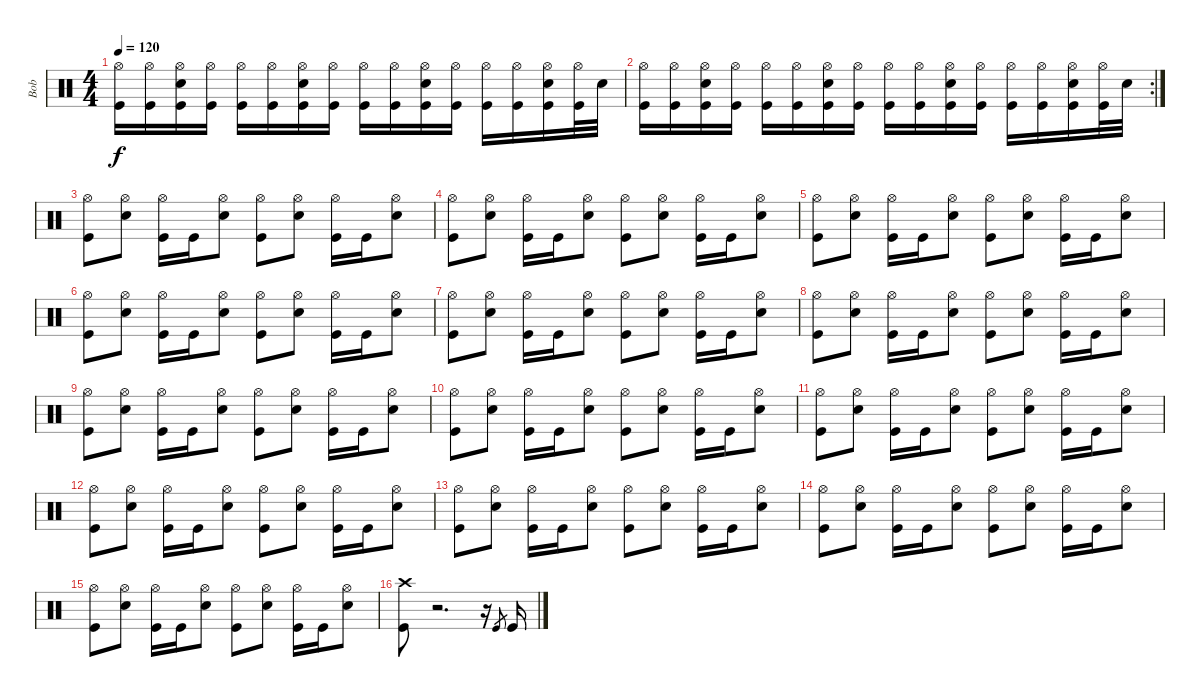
\track ("Bob" "Bob") {instrument percussion}
\staff {score}
\articulation defaults
\ts (4 4)
\tempo 120
\clef neutral
\ks c
("Hi-Hat (open)" "Kick (hit)").16{dy f} ("Hi-Hat (open)" "Kick (hit)").16 ("Hi-Hat (open)" "Snare (hit) 2" "Kick (hit)").16 ("Hi-Hat (open)" "Kick (hit)").16 ("Hi-Hat (open)" "Kick (hit)").16 ("Hi-Hat (open)" "Kick (hit)").16 ("Hi-Hat (open)" "Snare (hit) 2" "Kick (hit)").16 ("Hi-Hat (open)" "Kick (hit)").16 ("Hi-Hat (open)" "Kick (hit)").16 ("Hi-Hat (open)" "Kick (hit)").16 ("Hi-Hat (open)" "Snare (hit) 2" "Kick (hit)").16 ("Hi-Hat (open)" "Kick (hit)").16 ("Hi-Hat (open)" "Kick (hit)").16 ("Hi-Hat (open)" "Kick (hit)").16 ("Hi-Hat (open)" "Snare (hit) 2" "Kick (hit)").16 ("Hi-Hat (open)" "Kick (hit)").32 "Snare (hit) 2".32 |
\rc 2
("Hi-Hat (open)" "Kick (hit)").16 ("Hi-Hat (open)" "Kick (hit)").16 ("Hi-Hat (open)" "Snare (hit) 2" "Kick (hit)").16 ("Hi-Hat (open)" "Kick (hit)").16 ("Hi-Hat (open)" "Kick (hit)").16 ("Hi-Hat (open)" "Kick (hit)").16 ("Hi-Hat (open)" "Snare (hit) 2" "Kick (hit)").16 ("Hi-Hat (open)" "Kick (hit)").16 ("Hi-Hat (open)" "Kick (hit)").16 ("Hi-Hat (open)" "Kick (hit)").16 ("Hi-Hat (open)" "Snare (hit) 2" "Kick (hit)").16 ("Hi-Hat (open)" "Kick (hit)").16 ("Hi-Hat (open)" "Kick (hit)").16 ("Hi-Hat (open)" "Kick (hit)").16 ("Hi-Hat (open)" "Snare (hit) 2" "Kick (hit)").16 ("Hi-Hat (open)" "Kick (hit)").32 "Snare (hit) 2".32 |
("Hi-Hat (open)" "Kick (hit)").8 ("Hi-Hat (open)" "Snare (hit) 2").8 ("Hi-Hat (open)" "Kick (hit)").16 "Kick (hit)".16 ("Hi-Hat (open)" "Snare (hit) 2").8 ("Hi-Hat (open)" "Kick (hit)").8 ("Hi-Hat (open)" "Snare (hit) 2").8 ("Hi-Hat (open)" "Kick (hit)").16 "Kick (hit)".16 ("Hi-Hat (open)" "Snare (hit) 2").8 |
("Hi-Hat (open)" "Kick (hit)").8 ("Hi-Hat (open)" "Snare (hit) 2").8 ("Hi-Hat (open)" "Kick (hit)").16 "Kick (hit)".16 ("Hi-Hat (open)" "Snare (hit) 2").8 ("Hi-Hat (open)" "Kick (hit)").8 ("Hi-Hat (open)" "Snare (hit) 2").8 ("Hi-Hat (open)" "Kick (hit)").16 "Kick (hit)".16 ("Hi-Hat (open)" "Snare (hit) 2").8 |
("Hi-Hat (open)" "Kick (hit)").8 ("Hi-Hat (open)" "Snare (hit) 2").8 ("Hi-Hat (open)" "Kick (hit)").16 "Kick (hit)".16 ("Hi-Hat (open)" "Snare (hit) 2").8 ("Hi-Hat (open)" "Kick (hit)").8 ("Hi-Hat (open)" "Snare (hit) 2").8 ("Hi-Hat (open)" "Kick (hit)").16 "Kick (hit)".16 ("Hi-Hat (open)" "Snare (hit) 2").8 |
("Hi-Hat (open)" "Kick (hit)").8 ("Hi-Hat (open)" "Snare (hit) 2").8 ("Hi-Hat (open)" "Kick (hit)").16 "Kick (hit)".16 ("Hi-Hat (open)" "Snare (hit) 2").8 ("Hi-Hat (open)" "Kick (hit)").8 ("Hi-Hat (open)" "Snare (hit) 2").8 ("Hi-Hat (open)" "Kick (hit)").16 "Kick (hit)".16 ("Hi-Hat (open)" "Snare (hit) 2").8 |
("Hi-Hat (open)" "Kick (hit)").8 ("Hi-Hat (open)" "Snare (hit) 2").8 ("Hi-Hat (open)" "Kick (hit)").16 "Kick (hit)".16 ("Hi-Hat (open)" "Snare (hit) 2").8 ("Hi-Hat (open)" "Kick (hit)").8 ("Hi-Hat (open)" "Snare (hit) 2").8 ("Hi-Hat (open)" "Kick (hit)").16 "Kick (hit)".16 ("Hi-Hat (open)" "Snare (hit) 2").8 |
("Hi-Hat (open)" "Kick (hit)").8 ("Hi-Hat (open)" "Snare (hit) 2").8 ("Hi-Hat (open)" "Kick (hit)").16 "Kick (hit)".16 ("Hi-Hat (open)" "Snare (hit) 2").8 ("Hi-Hat (open)" "Kick (hit)").8 ("Hi-Hat (open)" "Snare (hit) 2").8 ("Hi-Hat (open)" "Kick (hit)").16 "Kick (hit)".16 ("Hi-Hat (open)" "Snare (hit) 2").8 |
("Hi-Hat (open)" "Kick (hit)").8 ("Hi-Hat (open)" "Snare (hit) 2").8 ("Hi-Hat (open)" "Kick (hit)").16 "Kick (hit)".16 ("Hi-Hat (open)" "Snare (hit) 2").8 ("Hi-Hat (open)" "Kick (hit)").8 ("Hi-Hat (open)" "Snare (hit) 2").8 ("Hi-Hat (open)" "Kick (hit)").16 "Kick (hit)".16 ("Hi-Hat (open)" "Snare (hit) 2").8 |
("Hi-Hat (open)" "Kick (hit)").8 ("Hi-Hat (open)" "Snare (hit) 2").8 ("Hi-Hat (open)" "Kick (hit)").16 "Kick (hit)".16 ("Hi-Hat (open)" "Snare (hit) 2").8 ("Hi-Hat (open)" "Kick (hit)").8 ("Hi-Hat (open)" "Snare (hit) 2").8 ("Hi-Hat (open)" "Kick (hit)").16 "Kick (hit)".16 ("Hi-Hat (open)" "Snare (hit) 2").8 |
("Hi-Hat (open)" "Kick (hit)").8 ("Hi-Hat (open)" "Snare (hit) 2").8 ("Hi-Hat (open)" "Kick (hit)").16 "Kick (hit)".16 ("Hi-Hat (open)" "Snare (hit) 2").8 ("Hi-Hat (open)" "Kick (hit)").8 ("Hi-Hat (open)" "Snare (hit) 2").8 ("Hi-Hat (open)" "Kick (hit)").16 "Kick (hit)".16 ("Hi-Hat (open)" "Snare (hit) 2").8 |
("Hi-Hat (open)" "Kick (hit)").8 ("Hi-Hat (open)" "Snare (hit) 2").8 ("Hi-Hat (open)" "Kick (hit)").16 "Kick (hit)".16 ("Hi-Hat (open)" "Snare (hit) 2").8 ("Hi-Hat (open)" "Kick (hit)").8 ("Hi-Hat (open)" "Snare (hit) 2").8 ("Hi-Hat (open)" "Kick (hit)").16 "Kick (hit)".16 ("Hi-Hat (open)" "Snare (hit) 2").8 |
("Hi-Hat (open)" "Kick (hit)").8 ("Hi-Hat (open)" "Snare (hit) 2").8 ("Hi-Hat (open)" "Kick (hit)").16 "Kick (hit)".16 ("Hi-Hat (open)" "Snare (hit) 2").8 ("Hi-Hat (open)" "Kick (hit)").8 ("Hi-Hat (open)" "Snare (hit) 2").8 ("Hi-Hat (open)" "Kick (hit)").16 "Kick (hit)".16 ("Hi-Hat (open)" "Snare (hit) 2").8 |
("Hi-Hat (open)" "Kick (hit)").8 ("Hi-Hat (open)" "Snare (hit) 2").8 ("Hi-Hat (open)" "Kick (hit)").16 "Kick (hit)".16 ("Hi-Hat (open)" "Snare (hit) 2").8 ("Hi-Hat (open)" "Kick (hit)").8 ("Hi-Hat (open)" "Snare (hit) 2").8 ("Hi-Hat (open)" "Kick (hit)").16 "Kick (hit)".16 ("Hi-Hat (open)" "Snare (hit) 2").8 |
("Hi-Hat (open)" "Kick (hit)").8 ("Hi-Hat (open)" "Snare (hit) 2").8 ("Hi-Hat (open)" "Kick (hit)").16 "Kick (hit)".16 ("Hi-Hat (open)" "Snare (hit) 2").8 ("Hi-Hat (open)" "Kick (hit)").8 ("Hi-Hat (open)" "Snare (hit) 2").8 ("Hi-Hat (open)" "Kick (hit)").16 "Kick (hit)".16 ("Hi-Hat (open)" "Snare (hit) 2").8 |
("Crash high (hit)" "Kick (hit)").8 r.2{d} r.16 "Kick (hit)".8{gr} "Kick (hit)".16
